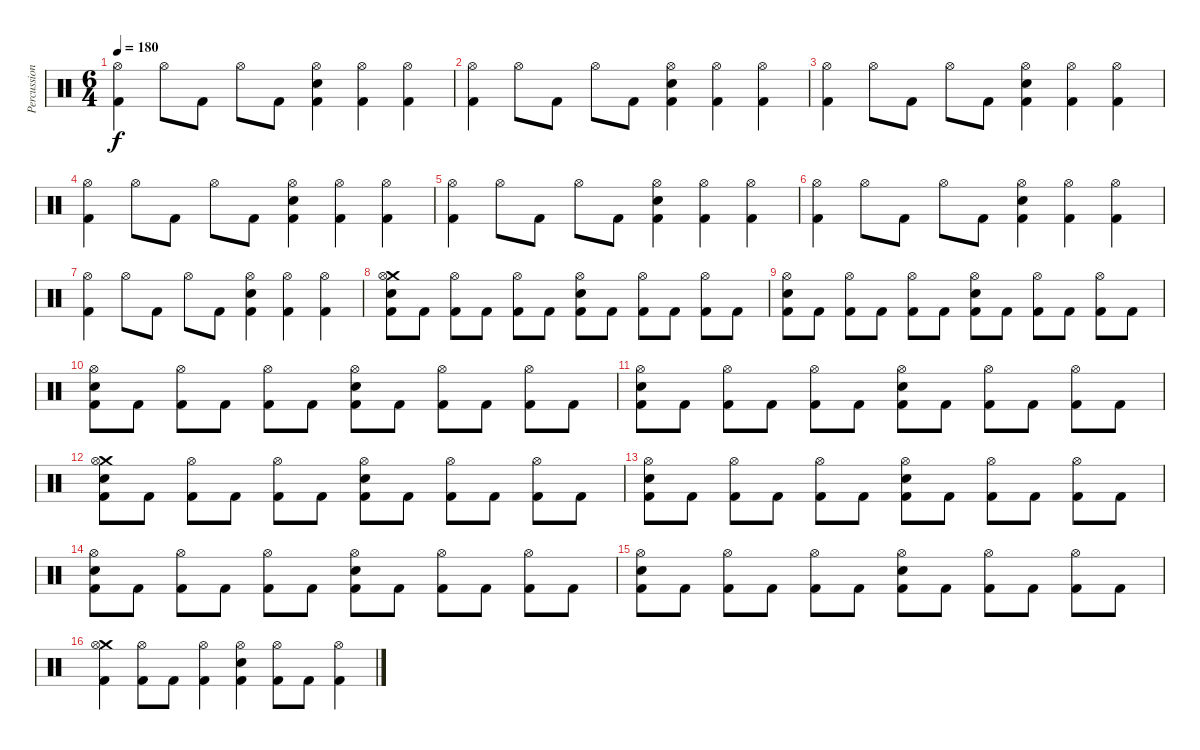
\track ("Percussion" "Percussion") {instrument percussion}
\staff {score}
\articulation defaults
\ts (6 4)
\tempo 180
\clef neutral
\ks c
("Hi-Hat (open)" "Kick (hit) 2").4{dy f} "Hi-Hat (open)".8 "Kick (hit) 2".8 "Hi-Hat (open)".8 "Kick (hit) 2".8 ("Hi-Hat (open)" "Electric Snare (hit)" "Kick (hit) 2").4 ("Hi-Hat (open)" "Kick (hit) 2").4 ("Hi-Hat (open)" "Kick (hit) 2").4 |
("Hi-Hat (open)" "Kick (hit) 2").4 "Hi-Hat (open)".8 "Kick (hit) 2".8 "Hi-Hat (open)".8 "Kick (hit) 2".8 ("Hi-Hat (open)" "Electric Snare (hit)" "Kick (hit) 2").4 ("Hi-Hat (open)" "Kick (hit) 2").4 ("Hi-Hat (open)" "Kick (hit) 2").4 |
("Hi-Hat (open)" "Kick (hit) 2").4 "Hi-Hat (open)".8 "Kick (hit) 2".8 "Hi-Hat (open)".8 "Kick (hit) 2".8 ("Hi-Hat (open)" "Electric Snare (hit)" "Kick (hit) 2").4 ("Hi-Hat (open)" "Kick (hit) 2").4 ("Hi-Hat (open)" "Kick (hit) 2").4 |
("Hi-Hat (open)" "Kick (hit) 2").4 "Hi-Hat (open)".8 "Kick (hit) 2".8 "Hi-Hat (open)".8 "Kick (hit) 2".8 ("Hi-Hat (open)" "Electric Snare (hit)" "Kick (hit) 2").4 ("Hi-Hat (open)" "Kick (hit) 2").4 ("Hi-Hat (open)" "Kick (hit) 2").4 |
("Hi-Hat (open)" "Kick (hit) 2").4 "Hi-Hat (open)".8 "Kick (hit) 2".8 "Hi-Hat (open)".8 "Kick (hit) 2".8 ("Hi-Hat (open)" "Electric Snare (hit)" "Kick (hit) 2").4 ("Hi-Hat (open)" "Kick (hit) 2").4 ("Hi-Hat (open)" "Kick (hit) 2").4 |
("Hi-Hat (open)" "Kick (hit) 2").4 "Hi-Hat (open)".8 "Kick (hit) 2".8 "Hi-Hat (open)".8 "Kick (hit) 2".8 ("Hi-Hat (open)" "Electric Snare (hit)" "Kick (hit) 2").4 ("Hi-Hat (open)" "Kick (hit) 2").4 ("Hi-Hat (open)" "Kick (hit) 2").4 |
("Hi-Hat (open)" "Kick (hit) 2").4 "Hi-Hat (open)".8 "Kick (hit) 2".8 "Hi-Hat (open)".8 "Kick (hit) 2".8 ("Hi-Hat (open)" "Electric Snare (hit)" "Kick (hit) 2").4 ("Hi-Hat (open)" "Kick (hit) 2").4 ("Hi-Hat (open)" "Kick (hit) 2").4 |
("Crash medium (hit)" "Hi-Hat (open)" "Electric Snare (hit)" "Kick (hit) 2").8 "Kick (hit) 2".8 ("Hi-Hat (open)" "Kick (hit) 2").8 "Kick (hit) 2".8 ("Hi-Hat (open)" "Kick (hit) 2").8 "Kick (hit) 2".8 ("Hi-Hat (open)" "Electric Snare (hit)" "Kick (hit) 2").8 "Kick (hit) 2".8 ("Hi-Hat (open)" "Kick (hit) 2").8 "Kick (hit) 2".8 ("Hi-Hat (open)" "Kick (hit) 2").8 "Kick (hit) 2".8 |
("Hi-Hat (open)" "Electric Snare (hit)" "Kick (hit) 2").8 "Kick (hit) 2".8 ("Hi-Hat (open)" "Kick (hit) 2").8 "Kick (hit) 2".8 ("Hi-Hat (open)" "Kick (hit) 2").8 "Kick (hit) 2".8 ("Hi-Hat (open)" "Electric Snare (hit)" "Kick (hit) 2").8 "Kick (hit) 2".8 ("Hi-Hat (open)" "Kick (hit) 2").8 "Kick (hit) 2".8 ("Hi-Hat (open)" "Kick (hit) 2").8 "Kick (hit) 2".8 |
("Hi-Hat (open)" "Electric Snare (hit)" "Kick (hit) 2").8 "Kick (hit) 2".8 ("Hi-Hat (open)" "Kick (hit) 2").8 "Kick (hit) 2".8 ("Hi-Hat (open)" "Kick (hit) 2").8 "Kick (hit) 2".8 ("Hi-Hat (open)" "Electric Snare (hit)" "Kick (hit) 2").8 "Kick (hit) 2".8 ("Hi-Hat (open)" "Kick (hit) 2").8 "Kick (hit) 2".8 ("Hi-Hat (open)" "Kick (hit) 2").8 "Kick (hit) 2".8 |
("Hi-Hat (open)" "Electric Snare (hit)" "Kick (hit) 2").8 "Kick (hit) 2".8 ("Hi-Hat (open)" "Kick (hit) 2").8 "Kick (hit) 2".8 ("Hi-Hat (open)" "Kick (hit) 2").8 "Kick (hit) 2".8 ("Hi-Hat (open)" "Electric Snare (hit)" "Kick (hit) 2").8 "Kick (hit) 2".8 ("Hi-Hat (open)" "Kick (hit) 2").8 "Kick (hit) 2".8 ("Hi-Hat (open)" "Kick (hit) 2").8 "Kick (hit) 2".8 |
("Crash medium (hit)" "Hi-Hat (open)" "Electric Snare (hit)" "Kick (hit) 2").8 "Kick (hit) 2".8 ("Hi-Hat (open)" "Kick (hit) 2").8 "Kick (hit) 2".8 ("Hi-Hat (open)" "Kick (hit) 2").8 "Kick (hit) 2".8 ("Hi-Hat (open)" "Electric Snare (hit)" "Kick (hit) 2").8 "Kick (hit) 2".8 ("Hi-Hat (open)" "Kick (hit) 2").8 "Kick (hit) 2".8 ("Hi-Hat (open)" "Kick (hit) 2").8 "Kick (hit) 2".8 |
("Hi-Hat (open)" "Electric Snare (hit)" "Kick (hit) 2").8 "Kick (hit) 2".8 ("Hi-Hat (open)" "Kick (hit) 2").8 "Kick (hit) 2".8 ("Hi-Hat (open)" "Kick (hit) 2").8 "Kick (hit) 2".8 ("Hi-Hat (open)" "Electric Snare (hit)" "Kick (hit) 2").8 "Kick (hit) 2".8 ("Hi-Hat (open)" "Kick (hit) 2").8 "Kick (hit) 2".8 ("Hi-Hat (open)" "Kick (hit) 2").8 "Kick (hit) 2".8 |
("Hi-Hat (open)" "Electric Snare (hit)" "Kick (hit) 2").8 "Kick (hit) 2".8 ("Hi-Hat (open)" "Kick (hit) 2").8 "Kick (hit) 2".8 ("Hi-Hat (open)" "Kick (hit) 2").8 "Kick (hit) 2".8 ("Hi-Hat (open)" "Electric Snare (hit)" "Kick (hit) 2").8 "Kick (hit) 2".8 ("Hi-Hat (open)" "Kick (hit) 2").8 "Kick (hit) 2".8 ("Hi-Hat (open)" "Kick (hit) 2").8 "Kick (hit) 2".8 |
("Hi-Hat (open)" "Electric Snare (hit)" "Kick (hit) 2").8 "Kick (hit) 2".8 ("Hi-Hat (open)" "Kick (hit) 2").8 "Kick (hit) 2".8 ("Hi-Hat (open)" "Kick (hit) 2").8 "Kick (hit) 2".8 ("Hi-Hat (open)" "Electric Snare (hit)" "Kick (hit) 2").8 "Kick (hit) 2".8 ("Hi-Hat (open)" "Kick (hit) 2").8 "Kick (hit) 2".8 ("Hi-Hat (open)" "Kick (hit) 2").8 "Kick (hit) 2".8 |
("Crash medium (hit)" "Hi-Hat (open)" "Kick (hit) 2").4 ("Hi-Hat (open)" "Kick (hit) 2").8 "Kick (hit) 2".8 ("Hi-Hat (open)" "Kick (hit) 2").4 ("Hi-Hat (open)" "Electric Snare (hit)" "Kick (hit) 2").4 ("Hi-Hat (open)" "Kick (hit) 2").8 "Kick (hit) 2".8 ("Hi-Hat (open)" "Kick (hit) 2").4
